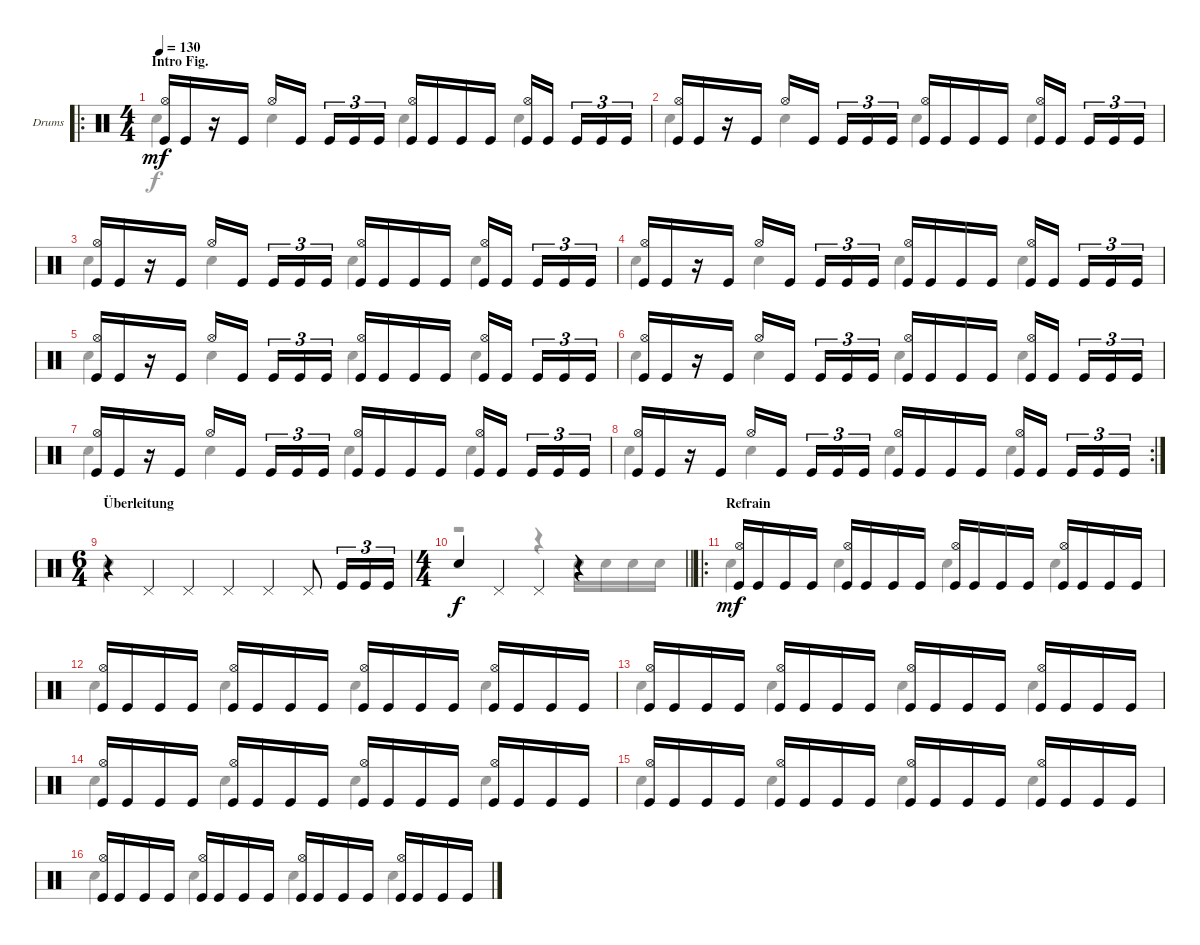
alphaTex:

\bracketExtendMode groupsimilarinstruments
\firstSystemTrackNameOrientation horizontal
\otherSystemsTrackNameOrientation horizontal
\track ("Drumkit" "Drums") {instrument percussion}
\staff {score}
\articulation defaults
\voice
\ro
\ts (4 4)
\section ("" "Intro Fig.")
\tempo 130
\clef neutral
\ks c
("Kick (hit)" "Hi-Hat (open)").16{dy mf} "Kick (hit)".16 r.16 "Kick (hit)".16 "Hi-Hat (open)".16 "Kick (hit)".16 "Kick (hit)".16{tu (3 2)} "Kick (hit)".16{tu (3 2)} "Kick (hit)".16{tu (3 2)} ("Kick (hit)" "Hi-Hat (open)").16 "Kick (hit)".16 "Kick (hit)".16 "Kick (hit)".16 ("Kick (hit)" "Hi-Hat (open)").16 "Kick (hit)".16 "Kick (hit)".16{tu (3 2)} "Kick (hit)".16{tu (3 2)} "Kick (hit)".16{tu (3 2)} |
("Kick (hit)" "Hi-Hat (open)").16 "Kick (hit)".16 r.16 "Kick (hit)".16 "Hi-Hat (open)".16 "Kick (hit)".16 "Kick (hit)".16{tu (3 2)} "Kick (hit)".16{tu (3 2)} "Kick (hit)".16{tu (3 2)} ("Kick (hit)" "Hi-Hat (open)").16 "Kick (hit)".16 "Kick (hit)".16 "Kick (hit)".16 ("Kick (hit)" "Hi-Hat (open)").16 "Kick (hit)".16 "Kick (hit)".16{tu (3 2)} "Kick (hit)".16{tu (3 2)} "Kick (hit)".16{tu (3 2)} |
("Kick (hit)" "Hi-Hat (open)").16 "Kick (hit)".16 r.16 "Kick (hit)".16 "Hi-Hat (open)".16 "Kick (hit)".16 "Kick (hit)".16{tu (3 2)} "Kick (hit)".16{tu (3 2)} "Kick (hit)".16{tu (3 2)} ("Kick (hit)" "Hi-Hat (open)").16 "Kick (hit)".16 "Kick (hit)".16 "Kick (hit)".16 ("Kick (hit)" "Hi-Hat (open)").16 "Kick (hit)".16 "Kick (hit)".16{tu (3 2)} "Kick (hit)".16{tu (3 2)} "Kick (hit)".16{tu (3 2)} |
("Kick (hit)" "Hi-Hat (open)").16 "Kick (hit)".16 r.16 "Kick (hit)".16 "Hi-Hat (open)".16 "Kick (hit)".16 "Kick (hit)".16{tu (3 2)} "Kick (hit)".16{tu (3 2)} "Kick (hit)".16{tu (3 2)} ("Kick (hit)" "Hi-Hat (open)").16 "Kick (hit)".16 "Kick (hit)".16 "Kick (hit)".16 ("Kick (hit)" "Hi-Hat (open)").16 "Kick (hit)".16 "Kick (hit)".16{tu (3 2)} "Kick (hit)".16{tu (3 2)} "Kick (hit)".16{tu (3 2)} |
("Kick (hit)" "Hi-Hat (open)").16 "Kick (hit)".16 r.16 "Kick (hit)".16 "Hi-Hat (open)".16 "Kick (hit)".16 "Kick (hit)".16{tu (3 2)} "Kick (hit)".16{tu (3 2)} "Kick (hit)".16{tu (3 2)} ("Kick (hit)" "Hi-Hat (open)").16 "Kick (hit)".16 "Kick (hit)".16 "Kick (hit)".16 ("Kick (hit)" "Hi-Hat (open)").16 "Kick (hit)".16 "Kick (hit)".16{tu (3 2)} "Kick (hit)".16{tu (3 2)} "Kick (hit)".16{tu (3 2)} |
("Kick (hit)" "Hi-Hat (open)").16 "Kick (hit)".16 r.16 "Kick (hit)".16 "Hi-Hat (open)".16 "Kick (hit)".16 "Kick (hit)".16{tu (3 2)} "Kick (hit)".16{tu (3 2)} "Kick (hit)".16{tu (3 2)} ("Kick (hit)" "Hi-Hat (open)").16 "Kick (hit)".16 "Kick (hit)".16 "Kick (hit)".16 ("Kick (hit)" "Hi-Hat (open)").16 "Kick (hit)".16 "Kick (hit)".16{tu (3 2)} "Kick (hit)".16{tu (3 2)} "Kick (hit)".16{tu (3 2)} |
("Kick (hit)" "Hi-Hat (open)").16 "Kick (hit)".16 r.16 "Kick (hit)".16 "Hi-Hat (open)".16 "Kick (hit)".16 "Kick (hit)".16{tu (3 2)} "Kick (hit)".16{tu (3 2)} "Kick (hit)".16{tu (3 2)} ("Kick (hit)" "Hi-Hat (open)").16 "Kick (hit)".16 "Kick (hit)".16 "Kick (hit)".16 ("Kick (hit)" "Hi-Hat (open)").16 "Kick (hit)".16 "Kick (hit)".16{tu (3 2)} "Kick (hit)".16{tu (3 2)} "Kick (hit)".16{tu (3 2)} |
\rc 2
("Kick (hit)" "Hi-Hat (open)").16 "Kick (hit)".16 r.16 "Kick (hit)".16 "Hi-Hat (open)".16 "Kick (hit)".16 "Kick (hit)".16{tu (3 2)} "Kick (hit)".16{tu (3 2)} "Kick (hit)".16{tu (3 2)} ("Kick (hit)" "Hi-Hat (open)").16 "Kick (hit)".16 "Kick (hit)".16 "Kick (hit)".16 ("Kick (hit)" "Hi-Hat (open)").16 "Kick (hit)".16 "Kick (hit)".16{tu (3 2)} "Kick (hit)".16{tu (3 2)} "Kick (hit)".16{tu (3 2)} |
\ts (6 4)
\section ("" "Überleitung")
\ks aminor
r.4 "Pedal Hi-Hat (hit)".4 "Pedal Hi-Hat (hit)".4 "Pedal Hi-Hat (hit)".4 "Pedal Hi-Hat (hit)".4 "Pedal Hi-Hat (hit)".8 "Kick (hit)".16{tu (3 2)} "Kick (hit)".16{tu (3 2)} "Kick (hit)".16{tu (3 2)} |
\ts (4 4)
\barLineRight lightlight "Snare (hit) 2".4{dy f} "Pedal Hi-Hat (hit)".4 "Pedal Hi-Hat (hit)".4
r.4 |
\ro
\section ("" "Refrain")
("Kick (hit)" "Hi-Hat (open)").16{dy mf} "Kick (hit)".16 "Kick (hit)".16 "Kick (hit)".16 ("Kick (hit)" "Hi-Hat (open)").16 "Kick (hit)".16 "Kick (hit)".16 "Kick (hit)".16 ("Kick (hit)" "Hi-Hat (open)").16 "Kick (hit)".16 "Kick (hit)".16 "Kick (hit)".16 ("Kick (hit)" "Hi-Hat (open)").16 "Kick (hit)".16 "Kick (hit)".16 "Kick (hit)".16 |
("Kick (hit)" "Hi-Hat (open)").16 "Kick (hit)".16 "Kick (hit)".16 "Kick (hit)".16 ("Kick (hit)" "Hi-Hat (open)").16 "Kick (hit)".16 "Kick (hit)".16 "Kick (hit)".16 ("Kick (hit)" "Hi-Hat (open)").16 "Kick (hit)".16 "Kick (hit)".16 "Kick (hit)".16 ("Kick (hit)" "Hi-Hat (open)").16 "Kick (hit)".16 "Kick (hit)".16 "Kick (hit)".16 |
("Kick (hit)" "Hi-Hat (open)").16 "Kick (hit)".16 "Kick (hit)".16 "Kick (hit)".16 ("Kick (hit)" "Hi-Hat (open)").16 "Kick (hit)".16 "Kick (hit)".16 "Kick (hit)".16 ("Kick (hit)" "Hi-Hat (open)").16 "Kick (hit)".16 "Kick (hit)".16 "Kick (hit)".16 ("Kick (hit)" "Hi-Hat (open)").16 "Kick (hit)".16 "Kick (hit)".16 "Kick (hit)".16 |
("Kick (hit)" "Hi-Hat (open)").16 "Kick (hit)".16 "Kick (hit)".16 "Kick (hit)".16 ("Kick (hit)" "Hi-Hat (open)").16 "Kick (hit)".16 "Kick (hit)".16 "Kick (hit)".16 ("Kick (hit)" "Hi-Hat (open)").16 "Kick (hit)".16 "Kick (hit)".16 "Kick (hit)".16 ("Kick (hit)" "Hi-Hat (open)").16 "Kick (hit)".16 "Kick (hit)".16 "Kick (hit)".16 |
("Kick (hit)" "Hi-Hat (open)").16 "Kick (hit)".16 "Kick (hit)".16 "Kick (hit)".16 ("Kick (hit)" "Hi-Hat (open)").16 "Kick (hit)".16 "Kick (hit)".16 "Kick (hit)".16 ("Kick (hit)" "Hi-Hat (open)").16 "Kick (hit)".16 "Kick (hit)".16 "Kick (hit)".16 ("Kick (hit)" "Hi-Hat (open)").16 "Kick (hit)".16 "Kick (hit)".16 "Kick (hit)".16 |
("Kick (hit)" "Hi-Hat (open)").16 "Kick (hit)".16 "Kick (hit)".16 "Kick (hit)".16 ("Kick (hit)" "Hi-Hat (open)").16 "Kick (hit)".16 "Kick (hit)".16 "Kick (hit)".16 ("Kick (hit)" "Hi-Hat (open)").16 "Kick (hit)".16 "Kick (hit)".16 "Kick (hit)".16 ("Kick (hit)" "Hi-Hat (open)").16 "Kick (hit)".16 "Kick (hit)".16 "Kick (hit)".16
\voice
\clef neutral
\ottava regular
\simile none
\ks c "Snare (hit) 2".4{dy f} "Snare (hit) 2".4 "Snare (hit) 2".4 "Snare (hit) 2".4
|
"Snare (hit) 2".4 "Snare (hit) 2".4 "Snare (hit) 2".4 "Snare (hit) 2".4 |
"Snare (hit) 2".4 "Snare (hit) 2".4 "Snare (hit) 2".4 "Snare (hit) 2".4 |
"Snare (hit) 2".4 "Snare (hit) 2".4 "Snare (hit) 2".4 "Snare (hit) 2".4 |
"Snare (hit) 2".4 "Snare (hit) 2".4 "Snare (hit) 2".4 "Snare (hit) 2".4 |
"Snare (hit) 2".4 "Snare (hit) 2".4 "Snare (hit) 2".4 "Snare (hit) 2".4 |
"Snare (hit) 2".4 "Snare (hit) 2".4 "Snare (hit) 2".4 "Snare (hit) 2".4 |
"Snare (hit) 2".4 "Snare (hit) 2".4 "Snare (hit) 2".4 "Snare (hit) 2".4 |
\ks aminor "Snare (hit) 2".4
|
\barLineRight lightlight
r.2 r.4 "Snare (hit) 2".16 "Snare (hit) 2".16 "Snare (hit) 2".16 "Snare (hit) 2".16 |
"Snare (hit) 2".4 "Snare (hit) 2".4 "Snare (hit) 2".4 "Snare (hit) 2".4 |
"Snare (hit) 2".4 "Snare (hit) 2".4 "Snare (hit) 2".4 "Snare (hit) 2".4 |
"Snare (hit) 2".4 "Snare (hit) 2".4 "Snare (hit) 2".4 "Snare (hit) 2".4 |
"Snare (hit) 2".4 "Snare (hit) 2".4 "Snare (hit) 2".4 "Snare (hit) 2".4 |
"Snare (hit) 2".4 "Snare (hit) 2".4 "Snare (hit) 2".4 "Snare (hit) 2".4 |
"Snare (hit) 2".4 "Snare (hit) 2".4 "Snare (hit) 2".4 "Snare (hit) 2".4
